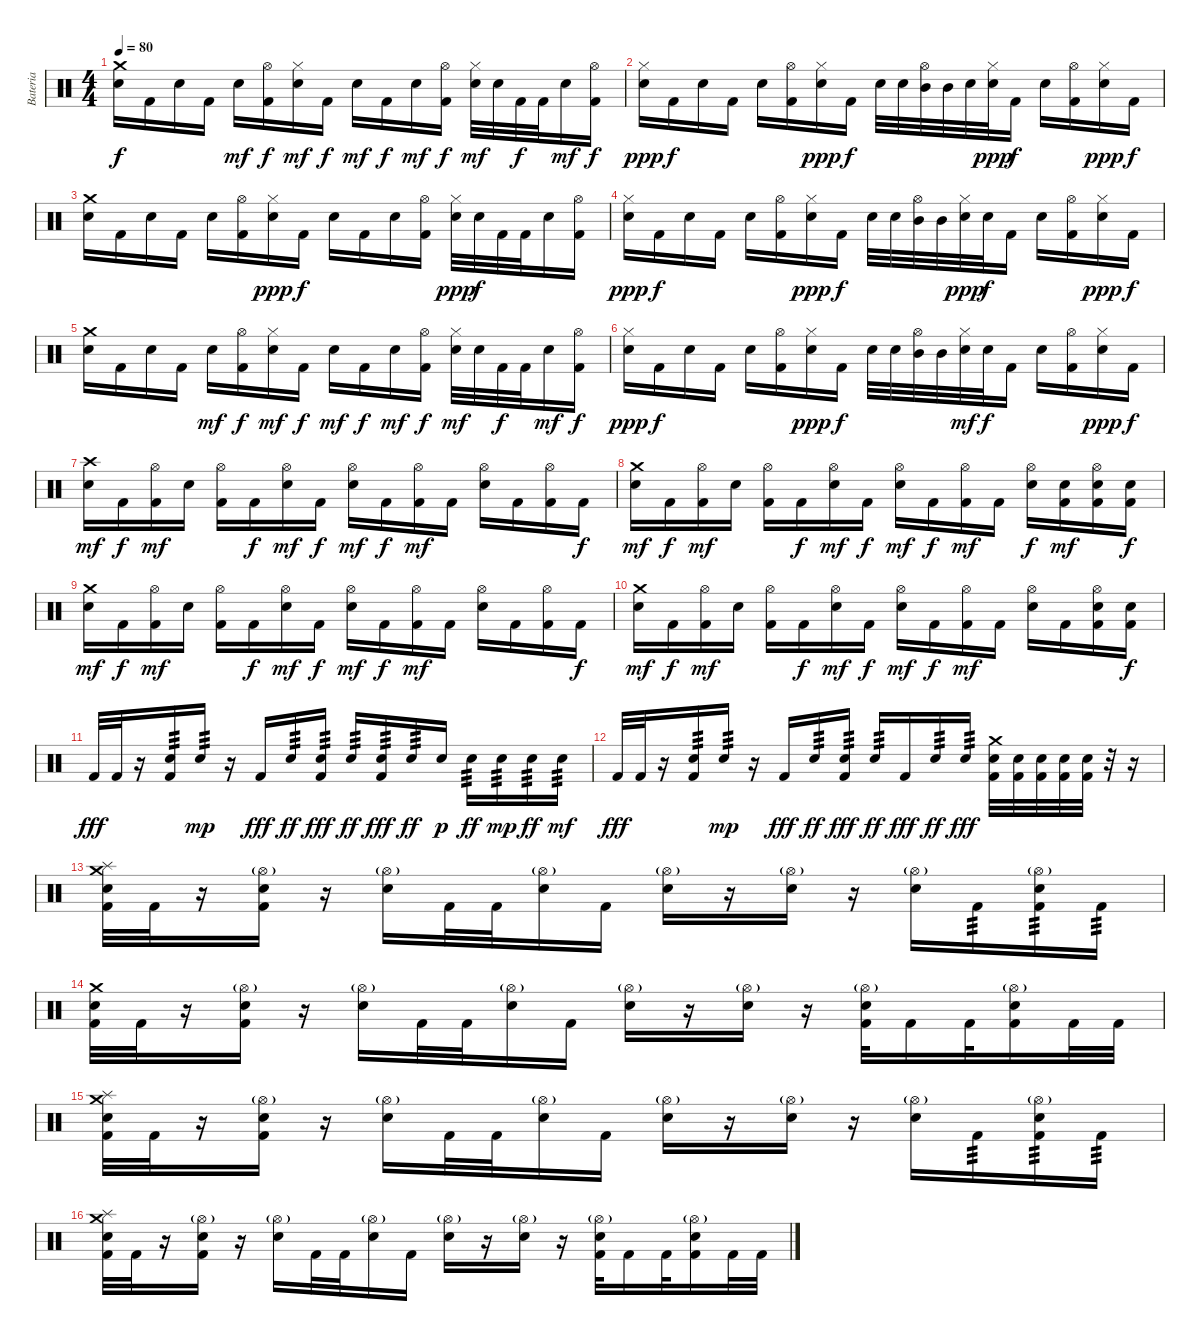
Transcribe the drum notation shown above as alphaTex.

\track ("Bateria" "Bateria") {instrument percussion}
\staff {score}
\articulation defaults
\ts (4 4)
\tempo 80
\clef neutral
\ks c
("Crash medium (hit)" "Electric Snare (hit)").16{dy f} "Kick (hit) 2".16 "Electric Snare (hit)".16 "Kick (hit) 2".16 "Electric Snare (hit)".16{dy mf} ("Hi-Hat (open)" "Kick (hit) 2").16{dy f} ("Hi-Hat (closed)" "Electric Snare (hit)").16{dy mf} "Kick (hit) 2".16{dy f} "Electric Snare (hit)".16{dy mf} "Kick (hit) 2".16{dy f} "Electric Snare (hit)".16{dy mf} ("Hi-Hat (open)" "Kick (hit) 2").16{dy f} ("Hi-Hat (closed)" "Electric Snare (hit)").32{dy mf} "Electric Snare (hit)".32 "Kick (hit) 2".32{dy f} "Kick (hit) 2".32 "Electric Snare (hit)".16{dy mf} ("Hi-Hat (open)" "Kick (hit) 2").16{dy f} |
("Hi-Hat (closed)" "Electric Snare (hit)").16{dy ppp} "Kick (hit) 2".16{dy f} "Electric Snare (hit)".16 "Kick (hit) 2".16 "Electric Snare (hit)".16 ("Hi-Hat (open)" "Kick (hit) 2").16 ("Hi-Hat (closed)" "Electric Snare (hit)").16{dy ppp} "Kick (hit) 2".16{dy f} "Electric Snare (hit)".32 "Electric Snare (hit)".32 ("Hi-Hat (open)" "Mid Tom (hit)").32 "Mid Tom (hit)".32 "Electric Snare (hit)".32 ("Hi-Hat (closed)" "Electric Snare (hit)").32{dy ppp} "Kick (hit) 2".16{dy f} "Electric Snare (hit)".16 ("Hi-Hat (open)" "Kick (hit) 2").16 ("Hi-Hat (closed)" "Electric Snare (hit)").16{dy ppp} "Kick (hit) 2".16{dy f} |
("Crash medium (hit)" "Electric Snare (hit)").16 "Kick (hit) 2".16 "Electric Snare (hit)".16 "Kick (hit) 2".16 "Electric Snare (hit)".16 ("Hi-Hat (open)" "Kick (hit) 2").16 ("Hi-Hat (closed)" "Electric Snare (hit)").16{dy ppp} "Kick (hit) 2".16{dy f} "Electric Snare (hit)".16 "Kick (hit) 2".16 "Electric Snare (hit)".16 ("Hi-Hat (open)" "Kick (hit) 2").16 ("Hi-Hat (closed)" "Electric Snare (hit)").32{dy ppp} "Electric Snare (hit)".32{dy f} "Kick (hit) 2".32 "Kick (hit) 2".32 "Electric Snare (hit)".16 ("Hi-Hat (open)" "Kick (hit) 2").16 |
("Hi-Hat (closed)" "Electric Snare (hit)").16{dy ppp} "Kick (hit) 2".16{dy f} "Electric Snare (hit)".16 "Kick (hit) 2".16 "Electric Snare (hit)".16 ("Hi-Hat (open)" "Kick (hit) 2").16 ("Hi-Hat (closed)" "Electric Snare (hit)").16{dy ppp} "Kick (hit) 2".16{dy f} "Electric Snare (hit)".32 "Electric Snare (hit)".32 ("Hi-Hat (open)" "Mid Tom (hit)").32 "Mid Tom (hit)".32 ("Hi-Hat (closed)" "Electric Snare (hit)").32{dy ppp} "Electric Snare (hit)".32{dy f} "Kick (hit) 2".16 "Electric Snare (hit)".16 ("Hi-Hat (open)" "Kick (hit) 2").16 ("Hi-Hat (closed)" "Electric Snare (hit)").16{dy ppp} "Kick (hit) 2".16{dy f} |
("Crash medium (hit)" "Electric Snare (hit)").16 "Kick (hit) 2".16 "Electric Snare (hit)".16 "Kick (hit) 2".16 "Electric Snare (hit)".16{dy mf} ("Hi-Hat (open)" "Kick (hit) 2").16{dy f} ("Hi-Hat (closed)" "Electric Snare (hit)").16{dy mf} "Kick (hit) 2".16{dy f} "Electric Snare (hit)".16{dy mf} "Kick (hit) 2".16{dy f} "Electric Snare (hit)".16{dy mf} ("Hi-Hat (open)" "Kick (hit) 2").16{dy f} ("Hi-Hat (closed)" "Electric Snare (hit)").32{dy mf} "Electric Snare (hit)".32 "Kick (hit) 2".32{dy f} "Kick (hit) 2".32 "Electric Snare (hit)".16{dy mf} ("Hi-Hat (open)" "Kick (hit) 2").16{dy f} |
("Hi-Hat (closed)" "Electric Snare (hit)").16{dy ppp} "Kick (hit) 2".16{dy f} "Electric Snare (hit)".16 "Kick (hit) 2".16 "Electric Snare (hit)".16 ("Hi-Hat (open)" "Kick (hit) 2").16 ("Hi-Hat (closed)" "Electric Snare (hit)").16{dy ppp} "Kick (hit) 2".16{dy f} "Electric Snare (hit)".32 "Electric Snare (hit)".32 ("Hi-Hat (open)" "Mid Tom (hit)").32 "Mid Tom (hit)".32 ("Hi-Hat (closed)" "Electric Snare (hit)").32{dy mf} "Electric Snare (hit)".32{dy f} "Kick (hit) 2".16 "Electric Snare (hit)".16 ("Hi-Hat (open)" "Kick (hit) 2").16 ("Hi-Hat (closed)" "Electric Snare (hit)").16{dy ppp} "Kick (hit) 2".16{dy f} |
("Crash high (hit)" "Electric Snare (hit)").16{dy mf} "Kick (hit) 2".16{dy f} ("Hi-Hat (open)" "Kick (hit) 2").16{dy mf} "Electric Snare (hit)".16 ("Hi-Hat (open)" "Kick (hit) 2").16 "Kick (hit) 2".16{dy f} ("Hi-Hat (open)" "Electric Snare (hit)").16{dy mf} "Kick (hit) 2".16{dy f} ("Hi-Hat (open)" "Electric Snare (hit)").16{dy mf} "Kick (hit) 2".16{dy f} ("Hi-Hat (open)" "Kick (hit) 2").16{dy mf} "Kick (hit) 2".16 ("Hi-Hat (open)" "Electric Snare (hit)").16 "Kick (hit) 2".16 ("Hi-Hat (open)" "Kick (hit) 2").16 "Kick (hit) 2".16{dy f} |
("Crash medium (hit)" "Electric Snare (hit)").16{dy mf} "Kick (hit) 2".16{dy f} ("Hi-Hat (open)" "Kick (hit) 2").16{dy mf} "Electric Snare (hit)".16 ("Hi-Hat (open)" "Kick (hit) 2").16 "Kick (hit) 2".16{dy f} ("Hi-Hat (open)" "Electric Snare (hit)").16{dy mf} "Kick (hit) 2".16{dy f} ("Hi-Hat (open)" "Electric Snare (hit)").16{dy mf} "Kick (hit) 2".16{dy f} ("Hi-Hat (open)" "Kick (hit) 2").16{dy mf} "Kick (hit) 2".16 ("Hi-Hat (open)" "Electric Snare (hit)").16{dy f} ("Electric Snare (hit)" "Kick (hit) 2").16{dy mf} ("Hi-Hat (open)" "Electric Snare (hit)" "Kick (hit) 2").16 ("Electric Snare (hit)" "Kick (hit) 2").16{dy f} |
("Crash medium (hit)" "Electric Snare (hit)").16{dy mf} "Kick (hit) 2".16{dy f} ("Hi-Hat (open)" "Kick (hit) 2").16{dy mf} "Electric Snare (hit)".16 ("Hi-Hat (open)" "Kick (hit) 2").16 "Kick (hit) 2".16{dy f} ("Hi-Hat (open)" "Electric Snare (hit)").16{dy mf} "Kick (hit) 2".16{dy f} ("Hi-Hat (open)" "Electric Snare (hit)").16{dy mf} "Kick (hit) 2".16{dy f} ("Hi-Hat (open)" "Kick (hit) 2").16{dy mf} "Kick (hit) 2".16 ("Hi-Hat (open)" "Electric Snare (hit)").16 "Kick (hit) 2".16 ("Hi-Hat (open)" "Kick (hit) 2").16 "Kick (hit) 2".16{dy f} |
("Crash medium (hit)" "Electric Snare (hit)").16{dy mf} "Kick (hit) 2".16{dy f} ("Hi-Hat (open)" "Kick (hit) 2").16{dy mf} "Electric Snare (hit)".16 ("Hi-Hat (open)" "Kick (hit) 2").16 "Kick (hit) 2".16{dy f} ("Hi-Hat (open)" "Electric Snare (hit)").16{dy mf} "Kick (hit) 2".16{dy f} ("Hi-Hat (open)" "Electric Snare (hit)").16{dy mf} "Kick (hit) 2".16{dy f} ("Hi-Hat (open)" "Kick (hit) 2").16{dy mf} "Kick (hit) 2".16 ("Hi-Hat (open)" "Electric Snare (hit)").16 "Kick (hit) 2".16 ("Hi-Hat (open)" "Electric Snare (hit)" "Kick (hit) 2").16 ("Electric Snare (hit)" "Kick (hit) 2").16{dy f} |
"Kick (hit) 2".32{dy fff} "Kick (hit) 2".32 r.16 ("Electric Snare (hit)" "Kick (hit) 2").16{tp 3} "Electric Snare (hit)".16{tp 3 dy mp} r.16 "Kick (hit) 2".16{dy fff} "Electric Snare (hit)".16{tp 3 dy ff} ("Electric Snare (hit)" "Kick (hit) 2").16{tp 3 dy fff} "Electric Snare (hit)".16{tp 3 dy ff} ("Electric Snare (hit)" "Kick (hit) 2").16{tp 3 dy fff} "Electric Snare (hit)".16{tp 3 dy ff} "Electric Snare (hit)".16{dy p} "Electric Snare (hit)".16{tp 3 dy ff} "Electric Snare (hit)".16{tp 3 dy mp} "Electric Snare (hit)".16{tp 3 dy ff} "Electric Snare (hit)".16{tp 3 dy mf} |
"Kick (hit) 2".32{dy fff} "Kick (hit) 2".32 r.16 ("Electric Snare (hit)" "Kick (hit) 2").16{tp 3} "Electric Snare (hit)".16{tp 3 dy mp} r.16 "Kick (hit) 2".16{dy fff} "Electric Snare (hit)".16{tp 3 dy ff} ("Electric Snare (hit)" "Kick (hit) 2").16{tp 3 dy fff} "Electric Snare (hit)".16{tp 3 dy ff} "Kick (hit) 2".16{dy fff} "Electric Snare (hit)".16{tp 3 dy ff} "Electric Snare (hit)".16{tp 3 dy fff} ("Crash medium (hit)" "Electric Snare (hit)" "Kick (hit) 2").32 ("Electric Snare (hit)" "Kick (hit) 2").32 ("Electric Snare (hit)" "Kick (hit) 2").32 ("Electric Snare (hit)" "Kick (hit) 2").32 ("Electric Snare (hit)" "Kick (hit) 2").32 r.32 r.16 |
("Crash medium (hit)" "Splash (hit)" "Electric Snare (hit)" "Kick (hit) 2").32 "Kick (hit) 2".32 r.16 ("Hi-Hat (open)"{g} "Electric Snare (hit)" "Kick (hit) 2").16 r.16 ("Hi-Hat (open)"{g} "Electric Snare (hit)").16 "Kick (hit) 2".32 "Kick (hit) 2".32 ("Hi-Hat (open)"{g} "Electric Snare (hit)").16 "Kick (hit) 2".16 ("Hi-Hat (open)"{g} "Electric Snare (hit)").16 r.16 ("Hi-Hat (open)"{g} "Electric Snare (hit)").16 r.16 ("Hi-Hat (open)"{g} "Electric Snare (hit)").16 "Kick (hit) 2".16{tp 3} ("Hi-Hat (open)"{g} "Electric Snare (hit)" "Kick (hit) 2").16{tp 3} "Kick (hit) 2".16{tp 3} |
("Crash medium (hit)" "Electric Snare (hit)" "Kick (hit) 2").32 "Kick (hit) 2".32 r.16 ("Hi-Hat (open)"{g} "Electric Snare (hit)" "Kick (hit) 2").16 r.16 ("Hi-Hat (open)"{g} "Electric Snare (hit)").16 "Kick (hit) 2".32 "Kick (hit) 2".32 ("Hi-Hat (open)"{g} "Electric Snare (hit)").16 "Kick (hit) 2".16 ("Hi-Hat (open)"{g} "Electric Snare (hit)").16 r.16 ("Hi-Hat (open)"{g} "Electric Snare (hit)").16 r.16 ("Hi-Hat (open)"{g} "Electric Snare (hit)" "Kick (hit) 2").32 "Kick (hit) 2".16 "Kick (hit) 2".32 ("Hi-Hat (open)"{g} "Electric Snare (hit)" "Kick (hit) 2").16 "Kick (hit) 2".32 "Kick (hit) 2".32 |
("Crash medium (hit)" "Splash (hit)" "Electric Snare (hit)" "Kick (hit) 2").32 "Kick (hit) 2".32 r.16 ("Hi-Hat (open)"{g} "Electric Snare (hit)" "Kick (hit) 2").16 r.16 ("Hi-Hat (open)"{g} "Electric Snare (hit)").16 "Kick (hit) 2".32 "Kick (hit) 2".32 ("Hi-Hat (open)"{g} "Electric Snare (hit)").16 "Kick (hit) 2".16 ("Hi-Hat (open)"{g} "Electric Snare (hit)").16 r.16 ("Hi-Hat (open)"{g} "Electric Snare (hit)").16 r.16 ("Hi-Hat (open)"{g} "Electric Snare (hit)").16 "Kick (hit) 2".16{tp 3} ("Hi-Hat (open)"{g} "Electric Snare (hit)" "Kick (hit) 2").16{tp 3} "Kick (hit) 2".16{tp 3} |
("Crash medium (hit)" "Splash (hit)" "Electric Snare (hit)" "Kick (hit) 2").32 "Kick (hit) 2".32 r.16 ("Hi-Hat (open)"{g} "Electric Snare (hit)" "Kick (hit) 2").16 r.16 ("Hi-Hat (open)"{g} "Electric Snare (hit)").16 "Kick (hit) 2".32 "Kick (hit) 2".32 ("Hi-Hat (open)"{g} "Electric Snare (hit)").16 "Kick (hit) 2".16 ("Hi-Hat (open)"{g} "Electric Snare (hit)").16 r.16 ("Hi-Hat (open)"{g} "Electric Snare (hit)").16 r.16 ("Hi-Hat (open)"{g} "Electric Snare (hit)" "Kick (hit) 2").32 "Kick (hit) 2".16 "Kick (hit) 2".32 ("Hi-Hat (open)"{g} "Electric Snare (hit)" "Kick (hit) 2").16 "Kick (hit) 2".32 "Kick (hit) 2".32
